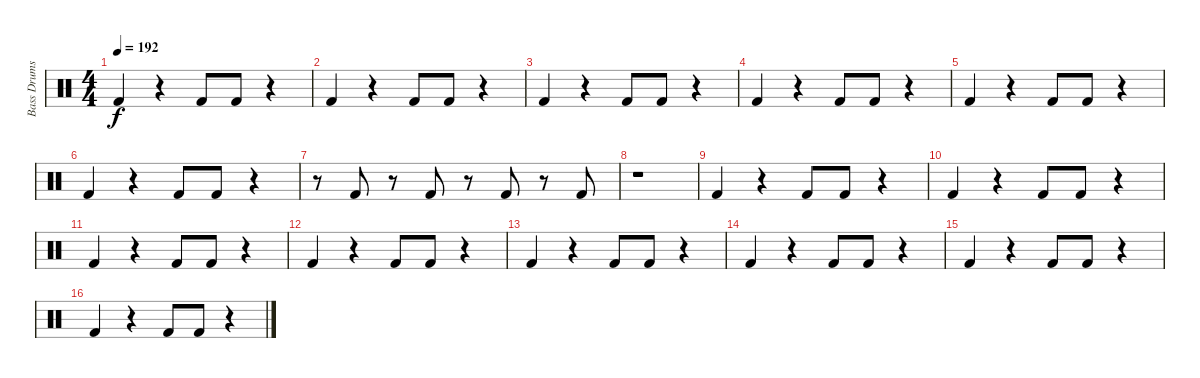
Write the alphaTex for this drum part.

\track ("Bass Drums" "Bass Drums") {instrument percussion}
\staff {score}
\articulation defaults
\ts (4 4)
\tempo 192
\clef neutral
\ks c "Kick (hit) 2".4{dy f}
r.4 "Kick (hit) 2".8 "Kick (hit) 2".8 r.4 |
"Kick (hit) 2".4 r.4 "Kick (hit) 2".8 "Kick (hit) 2".8 r.4 |
"Kick (hit) 2".4 r.4 "Kick (hit) 2".8 "Kick (hit) 2".8 r.4 |
"Kick (hit) 2".4 r.4 "Kick (hit) 2".8 "Kick (hit) 2".8 r.4 |
"Kick (hit) 2".4 r.4 "Kick (hit) 2".8 "Kick (hit) 2".8 r.4 |
"Kick (hit) 2".4 r.4 "Kick (hit) 2".8 "Kick (hit) 2".8 r.4 |
r.8 "Kick (hit) 2".8 r.8 "Kick (hit) 2".8 r.8 "Kick (hit) 2".8 r.8 "Kick (hit) 2".8 |
r.1 |
"Kick (hit) 2".4 r.4 "Kick (hit) 2".8 "Kick (hit) 2".8 r.4 |
"Kick (hit) 2".4 r.4 "Kick (hit) 2".8 "Kick (hit) 2".8 r.4 |
"Kick (hit) 2".4 r.4 "Kick (hit) 2".8 "Kick (hit) 2".8 r.4 |
"Kick (hit) 2".4 r.4 "Kick (hit) 2".8 "Kick (hit) 2".8 r.4 |
"Kick (hit) 2".4 r.4 "Kick (hit) 2".8 "Kick (hit) 2".8 r.4 |
"Kick (hit) 2".4 r.4 "Kick (hit) 2".8 "Kick (hit) 2".8 r.4 |
"Kick (hit) 2".4 r.4 "Kick (hit) 2".8 "Kick (hit) 2".8 r.4 |
"Kick (hit) 2".4 r.4 "Kick (hit) 2".8 "Kick (hit) 2".8 r.4
